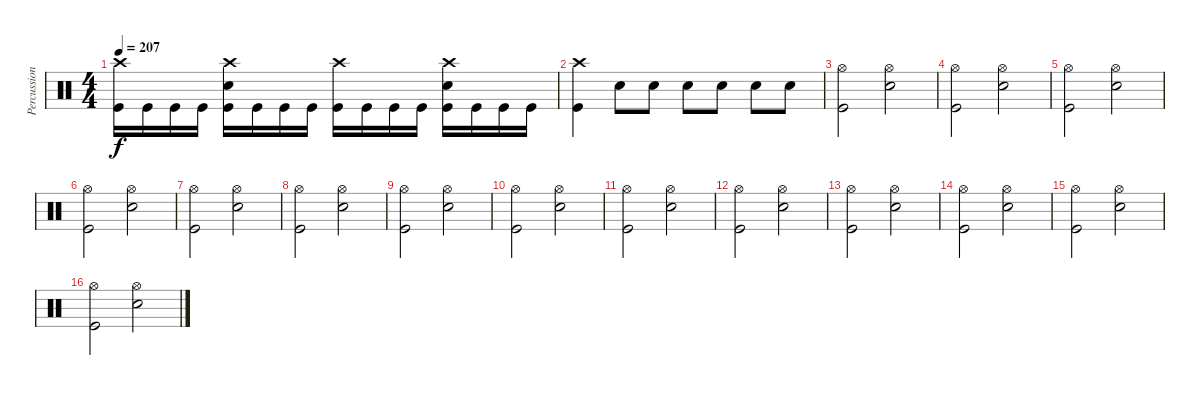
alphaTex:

\track ("Percussion" "Percussion") {instrument percussion}
\staff {score}
\articulation defaults
\ts (4 4)
\tempo 207
\clef neutral
\ks c
("Crash high (hit)" "Kick (hit)").16{dy f} "Kick (hit)".16 "Kick (hit)".16 "Kick (hit)".16 ("Crash high (hit)" "Electric Snare (hit)" "Kick (hit)").16 "Kick (hit)".16 "Kick (hit)".16 "Kick (hit)".16 ("Crash high (hit)" "Kick (hit)").16 "Kick (hit)".16 "Kick (hit)".16 "Kick (hit)".16 ("Crash high (hit)" "Electric Snare (hit)" "Kick (hit)").16 "Kick (hit)".16 "Kick (hit)".16 "Kick (hit)".16 |
("Crash high (hit)" "Kick (hit)").4 "Electric Snare (hit)".8 "Electric Snare (hit)".8 "Electric Snare (hit)".8 "Electric Snare (hit)".8 "Electric Snare (hit)".8 "Electric Snare (hit)".8 |
("Hi-Hat (open)" "Kick (hit)").2 ("Hi-Hat (open)" "Electric Snare (hit)").2 |
("Hi-Hat (open)" "Kick (hit)").2 ("Hi-Hat (open)" "Electric Snare (hit)").2 |
("Hi-Hat (open)" "Kick (hit)").2 ("Hi-Hat (open)" "Electric Snare (hit)").2 |
("Hi-Hat (open)" "Kick (hit)").2 ("Hi-Hat (open)" "Electric Snare (hit)").2 |
("Hi-Hat (open)" "Kick (hit)").2 ("Hi-Hat (open)" "Electric Snare (hit)").2 |
("Hi-Hat (open)" "Kick (hit)").2 ("Hi-Hat (open)" "Electric Snare (hit)").2 |
("Hi-Hat (open)" "Kick (hit)").2 ("Hi-Hat (open)" "Electric Snare (hit)").2 |
("Hi-Hat (open)" "Kick (hit)").2 ("Hi-Hat (open)" "Electric Snare (hit)").2 |
("Hi-Hat (open)" "Kick (hit)").2 ("Hi-Hat (open)" "Electric Snare (hit)").2 |
("Hi-Hat (open)" "Kick (hit)").2 ("Hi-Hat (open)" "Electric Snare (hit)").2 |
("Hi-Hat (open)" "Kick (hit)").2 ("Hi-Hat (open)" "Electric Snare (hit)").2 |
("Hi-Hat (open)" "Kick (hit)").2 ("Hi-Hat (open)" "Electric Snare (hit)").2 |
("Hi-Hat (open)" "Kick (hit)").2 ("Hi-Hat (open)" "Electric Snare (hit)").2 |
("Hi-Hat (open)" "Kick (hit)").2 ("Hi-Hat (open)" "Electric Snare (hit)").2
